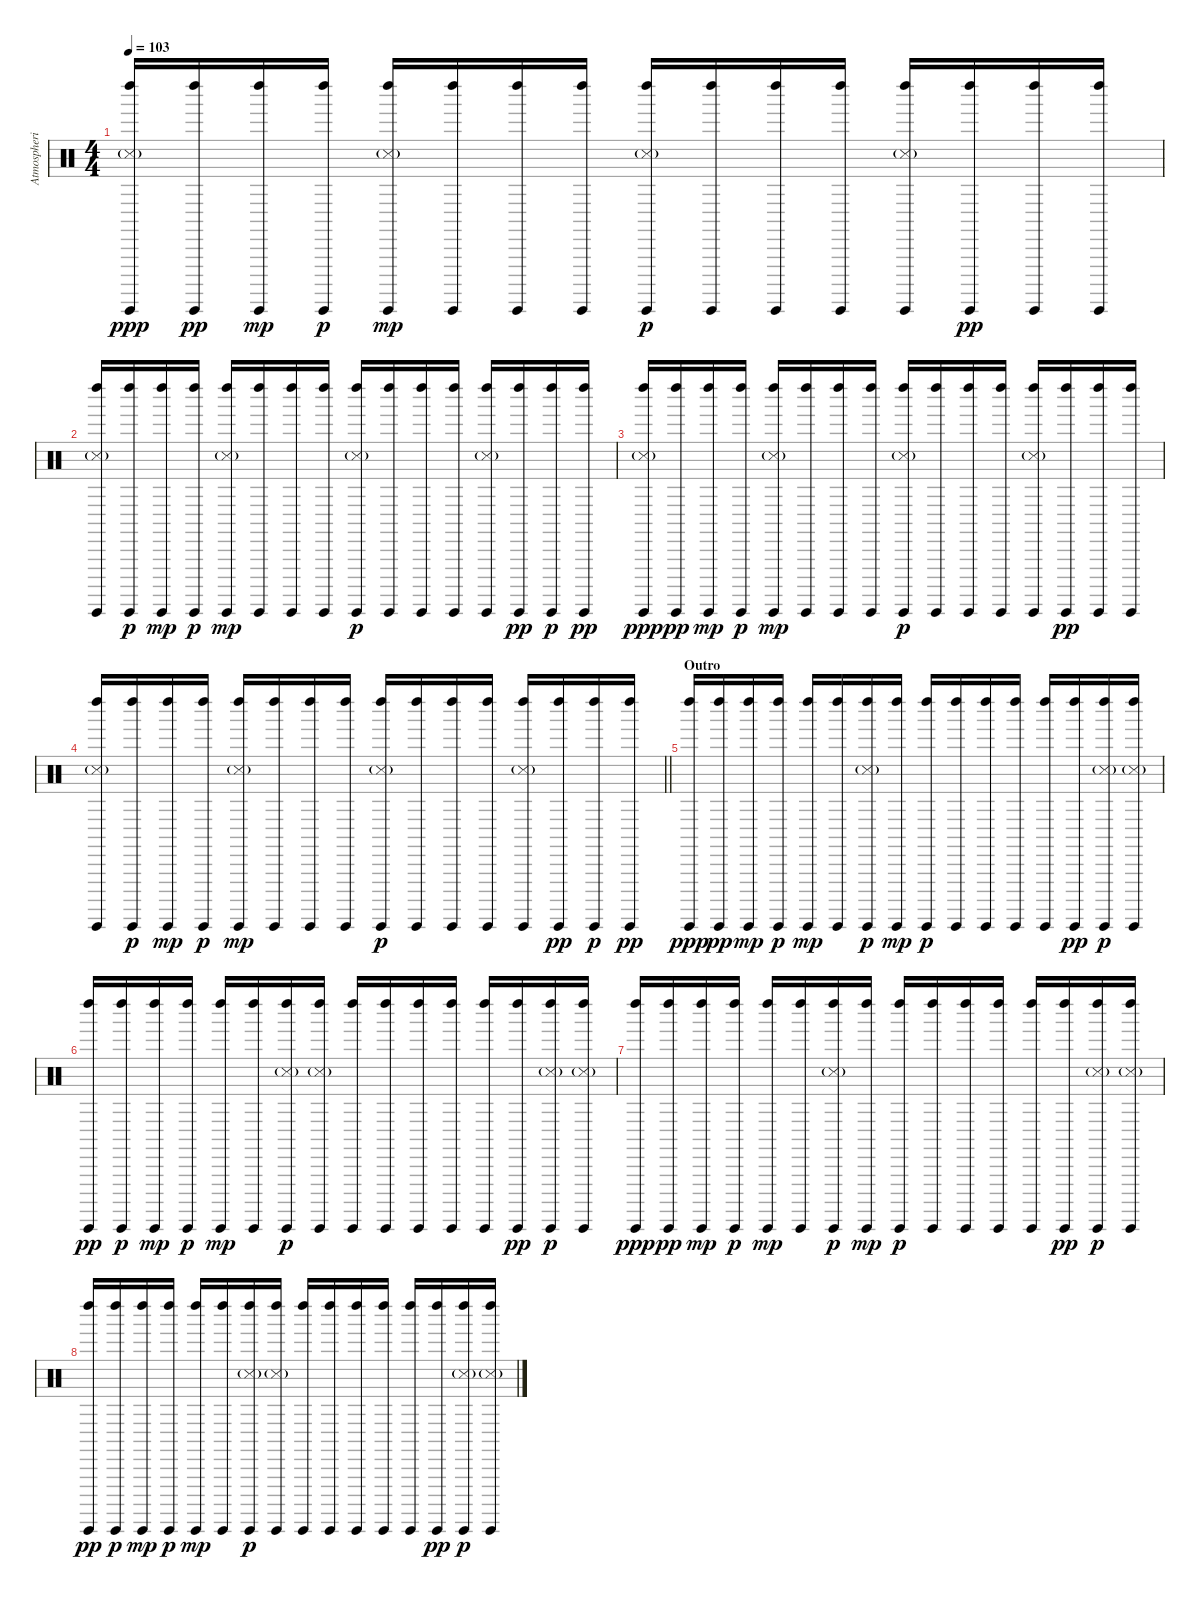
\track ("Atmospheric Percussion" "Atmospheri") {instrument percussion}
\staff {score}
\articulation defaults
\ts (4 4)
\tempo 103
\clef neutral
\ks c
("Guiro (hit)" "Snare (side stick) 3"{g} "Left Maraca (hit)").16{dy ppp} ("Guiro (hit)" "Left Maraca (hit)").16{dy pp} ("Guiro (hit)" "Left Maraca (hit)").16{dy mp} ("Guiro (hit)" "Left Maraca (hit)").16{dy p} ("Guiro (hit)" "Snare (side stick) 3"{g} "Left Maraca (hit)").16{dy mp} ("Guiro (hit)" "Left Maraca (hit)").16 ("Guiro (hit)" "Left Maraca (hit)").16 ("Guiro (hit)" "Left Maraca (hit)").16 ("Guiro (hit)" "Snare (side stick) 3"{g} "Left Maraca (hit)").16{dy p} ("Guiro (hit)" "Left Maraca (hit)").16 ("Guiro (hit)" "Left Maraca (hit)").16 ("Guiro (hit)" "Left Maraca (hit)").16 ("Guiro (hit)" "Snare (side stick) 3"{g} "Left Maraca (hit)").16 ("Guiro (hit)" "Left Maraca (hit)").16{dy pp} ("Guiro (hit)" "Left Maraca (hit)").16 ("Guiro (hit)" "Left Maraca (hit)").16 |
("Guiro (hit)" "Snare (side stick) 3"{g} "Left Maraca (hit)").16 ("Guiro (hit)" "Left Maraca (hit)").16{dy p} ("Guiro (hit)" "Left Maraca (hit)").16{dy mp} ("Guiro (hit)" "Left Maraca (hit)").16{dy p} ("Guiro (hit)" "Snare (side stick) 3"{g} "Left Maraca (hit)").16{dy mp} ("Guiro (hit)" "Left Maraca (hit)").16 ("Guiro (hit)" "Left Maraca (hit)").16 ("Guiro (hit)" "Left Maraca (hit)").16 ("Guiro (hit)" "Snare (side stick) 3"{g} "Left Maraca (hit)").16{dy p} ("Guiro (hit)" "Left Maraca (hit)").16 ("Guiro (hit)" "Left Maraca (hit)").16 ("Guiro (hit)" "Left Maraca (hit)").16 ("Guiro (hit)" "Snare (side stick) 3"{g} "Left Maraca (hit)").16 ("Guiro (hit)" "Left Maraca (hit)").16{dy pp} ("Guiro (hit)" "Left Maraca (hit)").16{dy p} ("Guiro (hit)" "Left Maraca (hit)").16{dy pp} |
("Guiro (hit)" "Snare (side stick) 3"{g} "Left Maraca (hit)").16{dy ppp} ("Guiro (hit)" "Left Maraca (hit)").16{dy pp} ("Guiro (hit)" "Left Maraca (hit)").16{dy mp} ("Guiro (hit)" "Left Maraca (hit)").16{dy p} ("Guiro (hit)" "Snare (side stick) 3"{g} "Left Maraca (hit)").16{dy mp} ("Guiro (hit)" "Left Maraca (hit)").16 ("Guiro (hit)" "Left Maraca (hit)").16 ("Guiro (hit)" "Left Maraca (hit)").16 ("Guiro (hit)" "Snare (side stick) 3"{g} "Left Maraca (hit)").16{dy p} ("Guiro (hit)" "Left Maraca (hit)").16 ("Guiro (hit)" "Left Maraca (hit)").16 ("Guiro (hit)" "Left Maraca (hit)").16 ("Guiro (hit)" "Snare (side stick) 3"{g} "Left Maraca (hit)").16 ("Guiro (hit)" "Left Maraca (hit)").16{dy pp} ("Guiro (hit)" "Left Maraca (hit)").16 ("Guiro (hit)" "Left Maraca (hit)").16 |
\barLineRight lightlight
("Guiro (hit)" "Snare (side stick) 3"{g} "Left Maraca (hit)").16 ("Guiro (hit)" "Left Maraca (hit)").16{dy p} ("Guiro (hit)" "Left Maraca (hit)").16{dy mp} ("Guiro (hit)" "Left Maraca (hit)").16{dy p} ("Guiro (hit)" "Snare (side stick) 3"{g} "Left Maraca (hit)").16{dy mp} ("Guiro (hit)" "Left Maraca (hit)").16 ("Guiro (hit)" "Left Maraca (hit)").16 ("Guiro (hit)" "Left Maraca (hit)").16 ("Guiro (hit)" "Snare (side stick) 3"{g} "Left Maraca (hit)").16{dy p} ("Guiro (hit)" "Left Maraca (hit)").16 ("Guiro (hit)" "Left Maraca (hit)").16 ("Guiro (hit)" "Left Maraca (hit)").16 ("Guiro (hit)" "Snare (side stick) 3"{g} "Left Maraca (hit)").16 ("Guiro (hit)" "Left Maraca (hit)").16{dy pp} ("Guiro (hit)" "Left Maraca (hit)").16{dy p} ("Guiro (hit)" "Left Maraca (hit)").16{dy pp} |
\section ("" "Outro")
("Guiro (hit)" "Left Maraca (hit)").16{dy ppp} ("Guiro (hit)" "Left Maraca (hit)").16{dy pp} ("Guiro (hit)" "Left Maraca (hit)").16{dy mp} ("Guiro (hit)" "Left Maraca (hit)").16{dy p} ("Guiro (hit)" "Left Maraca (hit)").16{dy mp} ("Guiro (hit)" "Left Maraca (hit)").16 ("Guiro (hit)" "Left Maraca (hit)" "Snare (side stick) 3"{g}).16{dy p} ("Guiro (hit)" "Left Maraca (hit)").16{dy mp} ("Guiro (hit)" "Left Maraca (hit)").16{dy p} ("Guiro (hit)" "Left Maraca (hit)").16 ("Guiro (hit)" "Left Maraca (hit)").16 ("Guiro (hit)" "Left Maraca (hit)").16 ("Guiro (hit)" "Left Maraca (hit)").16 ("Guiro (hit)" "Left Maraca (hit)").16{dy pp} ("Guiro (hit)" "Left Maraca (hit)" "Snare (side stick) 3"{g}).16{dy p} ("Guiro (hit)" "Left Maraca (hit)" "Snare (side stick) 3"{g}).16 |
("Guiro (hit)" "Left Maraca (hit)").16{dy pp} ("Guiro (hit)" "Left Maraca (hit)").16{dy p} ("Guiro (hit)" "Left Maraca (hit)").16{dy mp} ("Guiro (hit)" "Left Maraca (hit)").16{dy p} ("Guiro (hit)" "Left Maraca (hit)").16{dy mp} ("Guiro (hit)" "Left Maraca (hit)").16 ("Guiro (hit)" "Left Maraca (hit)" "Snare (side stick) 3"{g}).16{dy p} ("Guiro (hit)" "Left Maraca (hit)" "Snare (side stick) 3"{g}).16 ("Guiro (hit)" "Left Maraca (hit)").16 ("Guiro (hit)" "Left Maraca (hit)").16 ("Guiro (hit)" "Left Maraca (hit)").16 ("Guiro (hit)" "Left Maraca (hit)").16 ("Guiro (hit)" "Left Maraca (hit)").16 ("Guiro (hit)" "Left Maraca (hit)").16{dy pp} ("Guiro (hit)" "Left Maraca (hit)" "Snare (side stick) 3"{g}).16{dy p} ("Guiro (hit)" "Left Maraca (hit)" "Snare (side stick) 3"{g}).16 |
("Guiro (hit)" "Left Maraca (hit)").16{dy ppp} ("Guiro (hit)" "Left Maraca (hit)").16{dy pp} ("Guiro (hit)" "Left Maraca (hit)").16{dy mp} ("Guiro (hit)" "Left Maraca (hit)").16{dy p} ("Guiro (hit)" "Left Maraca (hit)").16{dy mp} ("Guiro (hit)" "Left Maraca (hit)").16 ("Guiro (hit)" "Left Maraca (hit)" "Snare (side stick) 3"{g}).16{dy p} ("Guiro (hit)" "Left Maraca (hit)").16{dy mp} ("Guiro (hit)" "Left Maraca (hit)").16{dy p} ("Guiro (hit)" "Left Maraca (hit)").16 ("Guiro (hit)" "Left Maraca (hit)").16 ("Guiro (hit)" "Left Maraca (hit)").16 ("Guiro (hit)" "Left Maraca (hit)").16 ("Guiro (hit)" "Left Maraca (hit)").16{dy pp} ("Guiro (hit)" "Left Maraca (hit)" "Snare (side stick) 3"{g}).16{dy p} ("Guiro (hit)" "Left Maraca (hit)" "Snare (side stick) 3"{g}).16 |
("Guiro (hit)" "Left Maraca (hit)").16{dy pp} ("Guiro (hit)" "Left Maraca (hit)").16{dy p} ("Guiro (hit)" "Left Maraca (hit)").16{dy mp} ("Guiro (hit)" "Left Maraca (hit)").16{dy p} ("Guiro (hit)" "Left Maraca (hit)").16{dy mp} ("Guiro (hit)" "Left Maraca (hit)").16 ("Guiro (hit)" "Left Maraca (hit)" "Snare (side stick) 3"{g}).16{dy p} ("Guiro (hit)" "Left Maraca (hit)" "Snare (side stick) 3"{g}).16 ("Guiro (hit)" "Left Maraca (hit)").16 ("Guiro (hit)" "Left Maraca (hit)").16 ("Guiro (hit)" "Left Maraca (hit)").16 ("Guiro (hit)" "Left Maraca (hit)").16 ("Guiro (hit)" "Left Maraca (hit)").16 ("Guiro (hit)" "Left Maraca (hit)").16{dy pp} ("Guiro (hit)" "Left Maraca (hit)" "Snare (side stick) 3"{g}).16{dy p} ("Guiro (hit)" "Left Maraca (hit)" "Snare (side stick) 3"{g}).16
